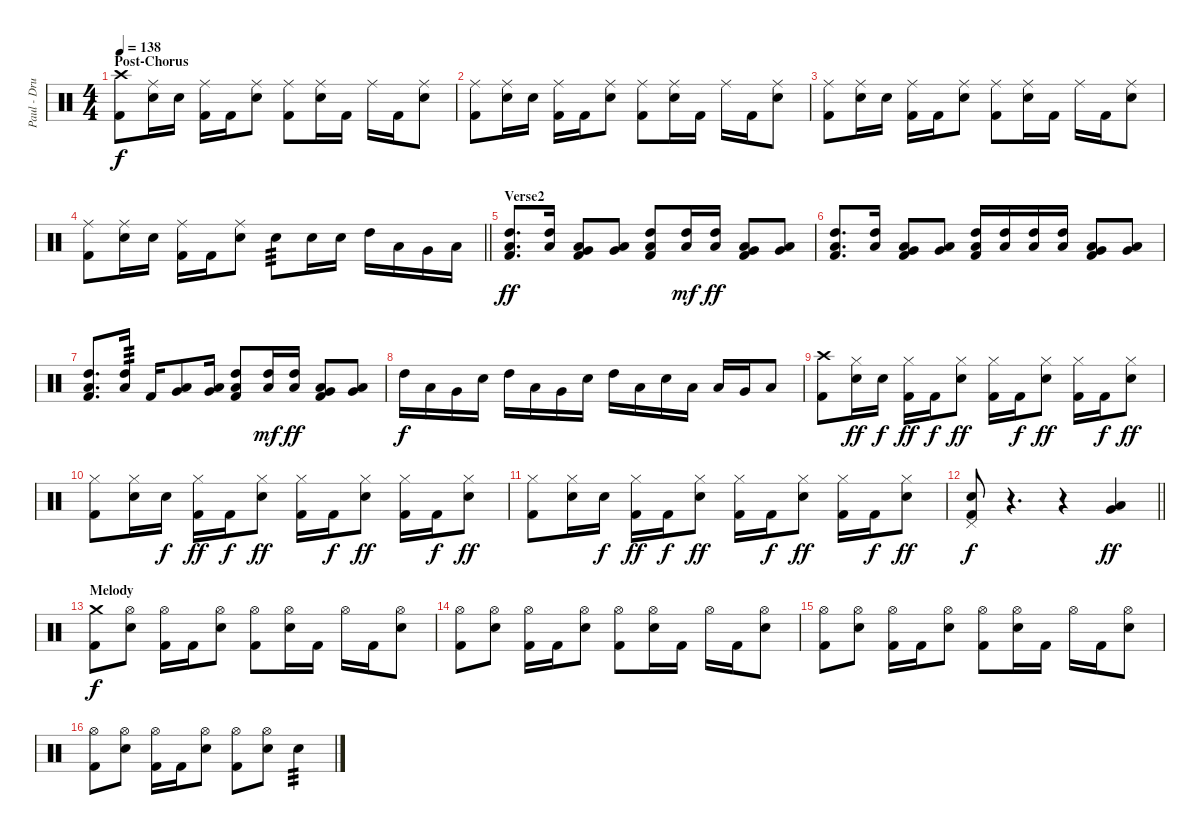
\track ("Paul - Drums" "Paul - Dru") {instrument percussion}
\staff {score}
\articulation defaults
\ts (4 4)
\section ("" "Post-Chorus")
\tempo 138
\clef neutral
\ks c
("Crash high (hit)" "Kick (hit) 2").8{dy f} ("Ride (middle)" "Electric Snare (hit)").16 "Electric Snare (hit)".16 ("Ride (middle)" "Kick (hit) 2").16 "Kick (hit) 2".16 ("Ride (middle)" "Electric Snare (hit)").8 ("Ride (middle)" "Kick (hit) 2").8 ("Ride (middle)" "Electric Snare (hit)").16 "Kick (hit) 2".16 "Ride (middle)".16 "Kick (hit) 2".16 ("Ride (middle)" "Electric Snare (hit)").8 |
("Ride (middle)" "Kick (hit) 2").8 ("Ride (middle)" "Electric Snare (hit)").16 "Electric Snare (hit)".16 ("Ride (middle)" "Kick (hit) 2").16 "Kick (hit) 2".16 ("Ride (middle)" "Electric Snare (hit)").8 ("Ride (middle)" "Kick (hit) 2").8 ("Ride (middle)" "Electric Snare (hit)").16 "Kick (hit) 2".16 "Ride (middle)".16 "Kick (hit) 2".16 ("Ride (middle)" "Electric Snare (hit)").8 |
("Ride (middle)" "Kick (hit) 2").8 ("Ride (middle)" "Electric Snare (hit)").16 "Electric Snare (hit)".16 ("Ride (middle)" "Kick (hit) 2").16 "Kick (hit) 2".16 ("Ride (middle)" "Electric Snare (hit)").8 ("Ride (middle)" "Kick (hit) 2").8 ("Ride (middle)" "Electric Snare (hit)").16 "Kick (hit) 2".16 "Ride (middle)".16 "Kick (hit) 2".16 ("Ride (middle)" "Electric Snare (hit)").8 |
\barLineRight lightlight
("Ride (middle)" "Kick (hit) 2").8 ("Ride (middle)" "Electric Snare (hit)").16 "Electric Snare (hit)".16 ("Ride (middle)" "Kick (hit) 2").16 "Kick (hit) 2".16 ("Ride (middle)" "Electric Snare (hit)").8 "Electric Snare (hit)".8{tp 3} "Electric Snare (hit)".16 "Electric Snare (hit)".16 "High Tom (hit)".16 "Low Tom (hit)".16 "Very Low Tom (hit)".16 "Low Floor Tom (hit)".16 |
\section ("" "Verse2")
("High Tom (hit)" "Low Tom (hit)" "Kick (hit) 2").8{d dy ff} ("High Tom (hit)" "Low Tom (hit)").16 ("Low Tom (hit)" "Very Low Tom (hit)" "Kick (hit) 2").8 ("Very Low Tom (hit)" "Low Floor Tom (hit)").8 ("High Tom (hit)" "Low Tom (hit)" "Kick (hit) 2").8 ("High Tom (hit)" "Low Tom (hit)").16{dy mf} ("High Tom (hit)" "Low Tom (hit)").16{dy ff} ("Low Tom (hit)" "Very Low Tom (hit)" "Kick (hit) 2").8 ("Very Low Tom (hit)" "Low Floor Tom (hit)").8 |
("High Tom (hit)" "Low Tom (hit)" "Kick (hit) 2").8{d} ("High Tom (hit)" "Low Tom (hit)").16 ("Low Tom (hit)" "Very Low Tom (hit)" "Kick (hit) 2").8 ("Very Low Tom (hit)" "Low Floor Tom (hit)").8 ("High Tom (hit)" "Low Tom (hit)" "Kick (hit) 2").16 ("High Tom (hit)" "Low Tom (hit)").16 ("High Tom (hit)" "Low Tom (hit)").16 ("High Tom (hit)" "Low Tom (hit)").16 ("Low Tom (hit)" "Very Low Tom (hit)" "Kick (hit) 2").8 ("Very Low Tom (hit)" "Low Floor Tom (hit)").8 |
("High Tom (hit)" "Low Tom (hit)" "Kick (hit) 2").8{d} ("High Tom (hit)" "Low Tom (hit)").16{tp 3} "Kick (hit) 2".16 ("Low Tom (hit)" "Very Low Tom (hit)").8 ("Very Low Tom (hit)" "Low Floor Tom (hit)").16 ("High Tom (hit)" "Low Tom (hit)" "Kick (hit) 2").8 ("High Tom (hit)" "Low Tom (hit)").16{dy mf} ("High Tom (hit)" "Low Tom (hit)").16{dy ff} ("Low Tom (hit)" "Very Low Tom (hit)" "Kick (hit) 2").8 ("Very Low Tom (hit)" "Low Floor Tom (hit)").8 |
"High Tom (hit)".16{dy f} "Low Tom (hit)".16 "Very Low Tom (hit)".16 "Electric Snare (hit)".16 "High Tom (hit)".16 "Low Tom (hit)".16 "Very Low Tom (hit)".16 "Electric Snare (hit)".16 "High Tom (hit)".16 "Low Tom (hit)".16 "Electric Snare (hit)".16 "Low Tom (hit)".16 "Low Tom (hit)".16 "Very Low Tom (hit)".16 "Low Floor Tom (hit)".8 |
("Crash high (hit)" "Kick (hit) 2").8 ("Hi-Hat (closed)" "Electric Snare (hit)").16{dy ff} "Electric Snare (hit)".16{dy f} ("Hi-Hat (closed)" "Kick (hit) 2").16{dy ff} "Kick (hit) 2".16{dy f} ("Hi-Hat (closed)" "Electric Snare (hit)").8{dy ff} ("Hi-Hat (closed)" "Kick (hit) 2").16 "Kick (hit) 2".16{dy f} ("Hi-Hat (closed)" "Electric Snare (hit)").8{dy ff} ("Hi-Hat (closed)" "Kick (hit) 2").16 "Kick (hit) 2".16{dy f} ("Hi-Hat (closed)" "Electric Snare (hit)").8{dy ff} |
("Hi-Hat (closed)" "Kick (hit) 2").8 ("Hi-Hat (closed)" "Electric Snare (hit)").16 "Electric Snare (hit)".16{dy f} ("Hi-Hat (closed)" "Kick (hit) 2").16{dy ff} "Kick (hit) 2".16{dy f} ("Hi-Hat (closed)" "Electric Snare (hit)").8{dy ff} ("Hi-Hat (closed)" "Kick (hit) 2").16 "Kick (hit) 2".16{dy f} ("Hi-Hat (closed)" "Electric Snare (hit)").8{dy ff} ("Hi-Hat (closed)" "Kick (hit) 2").16 "Kick (hit) 2".16{dy f} ("Hi-Hat (closed)" "Electric Snare (hit)").8{dy ff} |
("Hi-Hat (closed)" "Kick (hit) 2").8 ("Hi-Hat (closed)" "Electric Snare (hit)").16 "Electric Snare (hit)".16{dy f} ("Hi-Hat (closed)" "Kick (hit) 2").16{dy ff} "Kick (hit) 2".16{dy f} ("Hi-Hat (closed)" "Electric Snare (hit)").8{dy ff} ("Hi-Hat (closed)" "Kick (hit) 2").16 "Kick (hit) 2".16{dy f} ("Hi-Hat (closed)" "Electric Snare (hit)").8{dy ff} ("Hi-Hat (closed)" "Kick (hit) 2").16 "Kick (hit) 2".16{dy f} ("Hi-Hat (closed)" "Electric Snare (hit)").8{dy ff} |
\barLineRight lightlight
("Pedal Hi-Hat (hit)" "Electric Snare (hit)" "Kick (hit) 2").8{dy f} r.4{d} r.4 ("Very Low Tom (hit)" "Low Floor Tom (hit)").4{dy ff} |
\section ("" "Melody")
("Crash medium (hit)" "Kick (hit) 2").8{dy f} ("Hi-Hat (open)" "Electric Snare (hit)").8 ("Hi-Hat (open)" "Kick (hit) 2").16 "Kick (hit) 2".16 ("Hi-Hat (open)" "Electric Snare (hit)").8 ("Hi-Hat (open)" "Kick (hit) 2").8 ("Hi-Hat (open)" "Electric Snare (hit)").16 "Kick (hit) 2".16 "Hi-Hat (open)".16 "Kick (hit) 2".16 ("Hi-Hat (open)" "Electric Snare (hit)").8 |
("Hi-Hat (open)" "Kick (hit) 2").8 ("Hi-Hat (open)" "Electric Snare (hit)").8 ("Hi-Hat (open)" "Kick (hit) 2").16 "Kick (hit) 2".16 ("Hi-Hat (open)" "Electric Snare (hit)").8 ("Hi-Hat (open)" "Kick (hit) 2").8 ("Hi-Hat (open)" "Electric Snare (hit)").16 "Kick (hit) 2".16 "Hi-Hat (open)".16 "Kick (hit) 2".16 ("Hi-Hat (open)" "Electric Snare (hit)").8 |
("Hi-Hat (open)" "Kick (hit) 2").8 ("Hi-Hat (open)" "Electric Snare (hit)").8 ("Hi-Hat (open)" "Kick (hit) 2").16 "Kick (hit) 2".16 ("Hi-Hat (open)" "Electric Snare (hit)").8 ("Hi-Hat (open)" "Kick (hit) 2").8 ("Hi-Hat (open)" "Electric Snare (hit)").16 "Kick (hit) 2".16 "Hi-Hat (open)".16 "Kick (hit) 2".16 ("Hi-Hat (open)" "Electric Snare (hit)").8 |
("Hi-Hat (open)" "Kick (hit) 2").8 ("Hi-Hat (open)" "Electric Snare (hit)").8 ("Hi-Hat (open)" "Kick (hit) 2").16 "Kick (hit) 2".16 ("Hi-Hat (open)" "Electric Snare (hit)").8 ("Hi-Hat (open)" "Kick (hit) 2").8 ("Hi-Hat (open)" "Electric Snare (hit)").8 "Electric Snare (hit)".4{tp 3}
